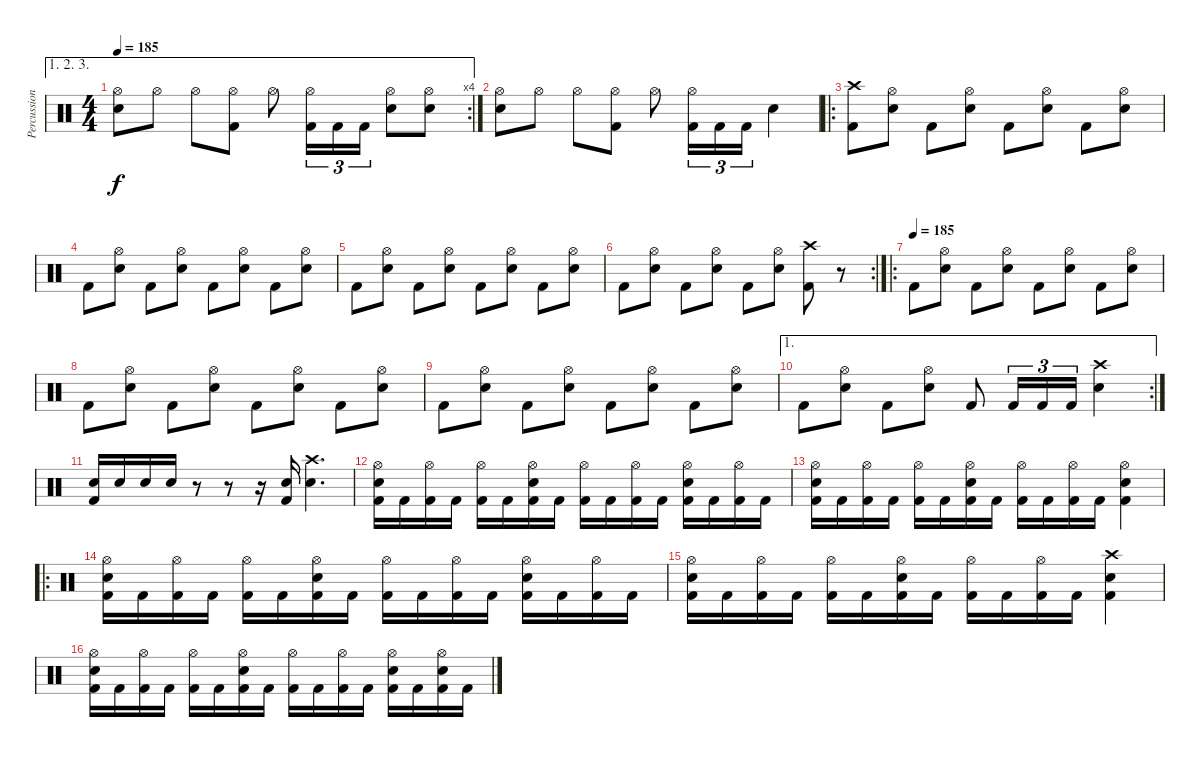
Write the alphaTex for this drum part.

\track ("Percussion" "Percussion") {instrument percussion}
\staff {score}
\articulation defaults
\ae (1 2 3)
\rc 4
\ts (4 4)
\tempo 185
\clef neutral
\ks c
("Hi-Hat (open)" "Electric Snare (hit)").8{dy f} "Hi-Hat (open)".8 "Hi-Hat (open)".8 ("Hi-Hat (open)" "Kick (hit) 2").8 "Hi-Hat (open)".8 ("Hi-Hat (open)" "Kick (hit) 2").16{tu (3 2)} "Kick (hit) 2".16{tu (3 2)} "Kick (hit) 2".16{tu (3 2)} ("Hi-Hat (open)" "Electric Snare (hit)").8 ("Hi-Hat (open)" "Electric Snare (hit)").8 |
("Hi-Hat (open)" "Electric Snare (hit)").8 "Hi-Hat (open)".8 "Hi-Hat (open)".8 ("Hi-Hat (open)" "Kick (hit) 2").8 "Hi-Hat (open)".8 ("Hi-Hat (open)" "Kick (hit) 2").16{tu (3 2)} "Kick (hit) 2".16{tu (3 2)} "Kick (hit) 2".16{tu (3 2)} "Electric Snare (hit)".4 |
\ro
("Crash high (hit)" "Kick (hit) 2").8{volume 13} ("Hi-Hat (open)" "Electric Snare (hit)").8 "Kick (hit) 2".8 ("Hi-Hat (open)" "Electric Snare (hit)").8 "Kick (hit) 2".8 ("Hi-Hat (open)" "Electric Snare (hit)").8 "Kick (hit) 2".8 ("Hi-Hat (open)" "Electric Snare (hit)").8 |
"Kick (hit) 2".8 ("Hi-Hat (open)" "Electric Snare (hit)").8 "Kick (hit) 2".8 ("Hi-Hat (open)" "Electric Snare (hit)").8 "Kick (hit) 2".8 ("Hi-Hat (open)" "Electric Snare (hit)").8 "Kick (hit) 2".8 ("Hi-Hat (open)" "Electric Snare (hit)").8 |
"Kick (hit) 2".8 ("Hi-Hat (open)" "Electric Snare (hit)").8 "Kick (hit) 2".8 ("Hi-Hat (open)" "Electric Snare (hit)").8 "Kick (hit) 2".8 ("Hi-Hat (open)" "Electric Snare (hit)").8 "Kick (hit) 2".8 ("Hi-Hat (open)" "Electric Snare (hit)").8 |
\rc 2 "Kick (hit) 2".8
("Hi-Hat (open)" "Electric Snare (hit)").8 "Kick (hit) 2".8 ("Hi-Hat (open)" "Electric Snare (hit)").8 "Kick (hit) 2".8 ("Hi-Hat (open)" "Electric Snare (hit)").8 ("Crash high (hit)" "Kick (hit) 2").8 r.8{volume 0} |
\ro
\tempo (185)
"Kick (hit) 2".8{volume 13} ("Hi-Hat (open)" "Electric Snare (hit)").8 "Kick (hit) 2".8 ("Hi-Hat (open)" "Electric Snare (hit)").8 "Kick (hit) 2".8 ("Hi-Hat (open)" "Electric Snare (hit)").8 "Kick (hit) 2".8 ("Hi-Hat (open)" "Electric Snare (hit)").8 |
"Kick (hit) 2".8 ("Hi-Hat (open)" "Electric Snare (hit)").8 "Kick (hit) 2".8 ("Hi-Hat (open)" "Electric Snare (hit)").8 "Kick (hit) 2".8 ("Hi-Hat (open)" "Electric Snare (hit)").8 "Kick (hit) 2".8 ("Hi-Hat (open)" "Electric Snare (hit)").8 |
"Kick (hit) 2".8 ("Hi-Hat (open)" "Electric Snare (hit)").8 "Kick (hit) 2".8 ("Hi-Hat (open)" "Electric Snare (hit)").8 "Kick (hit) 2".8 ("Hi-Hat (open)" "Electric Snare (hit)").8 "Kick (hit) 2".8 ("Hi-Hat (open)" "Electric Snare (hit)").8 |
\ae 1
\rc 2 "Kick (hit) 2".8
("Hi-Hat (open)" "Electric Snare (hit)").8 "Kick (hit) 2".8 ("Hi-Hat (open)" "Electric Snare (hit)").8 "Kick (hit) 2".8 "Kick (hit) 2".16{tu (3 2)} "Kick (hit) 2".16{tu (3 2)} "Kick (hit) 2".16{tu (3 2)} ("Crash high (hit)" "Electric Snare (hit)").4 |
("Electric Snare (hit)" "Kick (hit) 2").16 "Electric Snare (hit)".16 "Electric Snare (hit)".16 "Electric Snare (hit)".16 r.8 r.8 r.16 ("Electric Snare (hit)" "Kick (hit) 2").16 ("Crash high (hit)" "Electric Snare (hit)").4{d} |
("Hi-Hat (open)" "Electric Snare (hit)" "Kick (hit) 2").16 "Kick (hit) 2".16 ("Hi-Hat (open)" "Kick (hit) 2").16 "Kick (hit) 2".16 ("Hi-Hat (open)" "Kick (hit) 2").16 "Kick (hit) 2".16 ("Hi-Hat (open)" "Electric Snare (hit)" "Kick (hit) 2").16 "Kick (hit) 2".16 ("Hi-Hat (open)" "Kick (hit) 2").16 "Kick (hit) 2".16 ("Hi-Hat (open)" "Kick (hit) 2").16 "Kick (hit) 2".16 ("Hi-Hat (open)" "Electric Snare (hit)" "Kick (hit) 2").16 "Kick (hit) 2".16 ("Hi-Hat (open)" "Kick (hit) 2").16 "Kick (hit) 2".16 |
("Hi-Hat (open)" "Electric Snare (hit)" "Kick (hit) 2").16 "Kick (hit) 2".16 ("Hi-Hat (open)" "Kick (hit) 2").16 "Kick (hit) 2".16 ("Hi-Hat (open)" "Kick (hit) 2").16 "Kick (hit) 2".16 ("Hi-Hat (open)" "Electric Snare (hit)" "Kick (hit) 2").16 "Kick (hit) 2".16 ("Hi-Hat (open)" "Kick (hit) 2").16 "Kick (hit) 2".16 ("Hi-Hat (open)" "Kick (hit) 2").16 "Kick (hit) 2".16 ("Hi-Hat (open)" "Electric Snare (hit)" "Kick (hit) 2").4 |
\ro
("Hi-Hat (open)" "Electric Snare (hit)" "Kick (hit) 2").16 "Kick (hit) 2".16 ("Hi-Hat (open)" "Kick (hit) 2").16 "Kick (hit) 2".16 ("Hi-Hat (open)" "Kick (hit) 2").16 "Kick (hit) 2".16 ("Hi-Hat (open)" "Electric Snare (hit)" "Kick (hit) 2").16 "Kick (hit) 2".16 ("Hi-Hat (open)" "Kick (hit) 2").16 "Kick (hit) 2".16 ("Hi-Hat (open)" "Kick (hit) 2").16 "Kick (hit) 2".16 ("Hi-Hat (open)" "Electric Snare (hit)" "Kick (hit) 2").16 "Kick (hit) 2".16 ("Hi-Hat (open)" "Kick (hit) 2").16 "Kick (hit) 2".16 |
("Hi-Hat (open)" "Electric Snare (hit)" "Kick (hit) 2").16 "Kick (hit) 2".16 ("Hi-Hat (open)" "Kick (hit) 2").16 "Kick (hit) 2".16 ("Hi-Hat (open)" "Kick (hit) 2").16 "Kick (hit) 2".16 ("Hi-Hat (open)" "Electric Snare (hit)" "Kick (hit) 2").16 "Kick (hit) 2".16 ("Hi-Hat (open)" "Kick (hit) 2").16 "Kick (hit) 2".16 ("Hi-Hat (open)" "Kick (hit) 2").16 "Kick (hit) 2".16 ("Crash high (hit)" "Electric Snare (hit)" "Kick (hit) 2").4 |
("Hi-Hat (open)" "Electric Snare (hit)" "Kick (hit) 2").16 "Kick (hit) 2".16 ("Hi-Hat (open)" "Kick (hit) 2").16 "Kick (hit) 2".16 ("Hi-Hat (open)" "Kick (hit) 2").16 "Kick (hit) 2".16 ("Hi-Hat (open)" "Electric Snare (hit)" "Kick (hit) 2").16 "Kick (hit) 2".16 ("Hi-Hat (open)" "Kick (hit) 2").16 "Kick (hit) 2".16 ("Hi-Hat (open)" "Kick (hit) 2").16 "Kick (hit) 2".16 ("Hi-Hat (open)" "Electric Snare (hit)" "Kick (hit) 2").16 "Kick (hit) 2".16 ("Hi-Hat (open)" "Electric Snare (hit)" "Kick (hit) 2").16 "Kick (hit) 2".16
